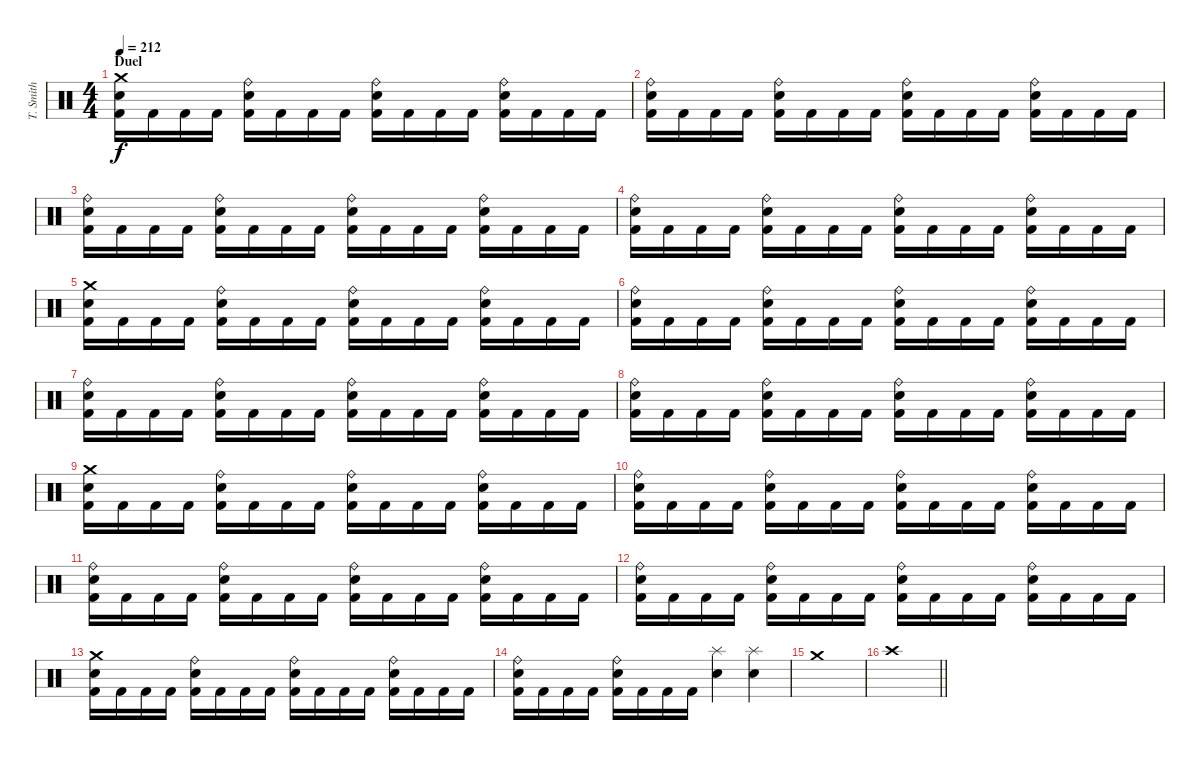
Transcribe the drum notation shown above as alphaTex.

\track ("T. Smith" "T. Smith") {instrument percussion}
\staff {score}
\articulation defaults
\ts (4 4)
\section ("" "Duel")
\tempo 212
\clef neutral
\ks c
("Crash medium (hit)" "Electric Snare (hit)" "Kick (hit) 2").16{dy f} "Kick (hit) 2".16 "Kick (hit) 2".16 "Kick (hit) 2".16 ("Ride (bell)" "Electric Snare (hit)" "Kick (hit) 2").16 "Kick (hit) 2".16 "Kick (hit) 2".16 "Kick (hit) 2".16 ("Ride (bell)" "Electric Snare (hit)" "Kick (hit) 2").16 "Kick (hit) 2".16 "Kick (hit) 2".16 "Kick (hit) 2".16 ("Ride (bell)" "Electric Snare (hit)" "Kick (hit) 2").16 "Kick (hit) 2".16 "Kick (hit) 2".16 "Kick (hit) 2".16 |
("Ride (bell)" "Electric Snare (hit)" "Kick (hit) 2").16 "Kick (hit) 2".16 "Kick (hit) 2".16 "Kick (hit) 2".16 ("Ride (bell)" "Electric Snare (hit)" "Kick (hit) 2").16 "Kick (hit) 2".16 "Kick (hit) 2".16 "Kick (hit) 2".16 ("Ride (bell)" "Electric Snare (hit)" "Kick (hit) 2").16 "Kick (hit) 2".16 "Kick (hit) 2".16 "Kick (hit) 2".16 ("Ride (bell)" "Electric Snare (hit)" "Kick (hit) 2").16 "Kick (hit) 2".16 "Kick (hit) 2".16 "Kick (hit) 2".16 |
("Ride (bell)" "Electric Snare (hit)" "Kick (hit) 2").16 "Kick (hit) 2".16 "Kick (hit) 2".16 "Kick (hit) 2".16 ("Ride (bell)" "Electric Snare (hit)" "Kick (hit) 2").16 "Kick (hit) 2".16 "Kick (hit) 2".16 "Kick (hit) 2".16 ("Ride (bell)" "Electric Snare (hit)" "Kick (hit) 2").16 "Kick (hit) 2".16 "Kick (hit) 2".16 "Kick (hit) 2".16 ("Ride (bell)" "Electric Snare (hit)" "Kick (hit) 2").16 "Kick (hit) 2".16 "Kick (hit) 2".16 "Kick (hit) 2".16 |
("Ride (bell)" "Electric Snare (hit)" "Kick (hit) 2").16 "Kick (hit) 2".16 "Kick (hit) 2".16 "Kick (hit) 2".16 ("Ride (bell)" "Electric Snare (hit)" "Kick (hit) 2").16 "Kick (hit) 2".16 "Kick (hit) 2".16 "Kick (hit) 2".16 ("Ride (bell)" "Electric Snare (hit)" "Kick (hit) 2").16 "Kick (hit) 2".16 "Kick (hit) 2".16 "Kick (hit) 2".16 ("Ride (bell)" "Electric Snare (hit)" "Kick (hit) 2").16 "Kick (hit) 2".16 "Kick (hit) 2".16 "Kick (hit) 2".16 |
("Crash medium (hit)" "Electric Snare (hit)" "Kick (hit) 2").16 "Kick (hit) 2".16 "Kick (hit) 2".16 "Kick (hit) 2".16 ("Ride (bell)" "Electric Snare (hit)" "Kick (hit) 2").16 "Kick (hit) 2".16 "Kick (hit) 2".16 "Kick (hit) 2".16 ("Ride (bell)" "Electric Snare (hit)" "Kick (hit) 2").16 "Kick (hit) 2".16 "Kick (hit) 2".16 "Kick (hit) 2".16 ("Ride (bell)" "Electric Snare (hit)" "Kick (hit) 2").16 "Kick (hit) 2".16 "Kick (hit) 2".16 "Kick (hit) 2".16 |
("Ride (bell)" "Electric Snare (hit)" "Kick (hit) 2").16 "Kick (hit) 2".16 "Kick (hit) 2".16 "Kick (hit) 2".16 ("Ride (bell)" "Electric Snare (hit)" "Kick (hit) 2").16 "Kick (hit) 2".16 "Kick (hit) 2".16 "Kick (hit) 2".16 ("Ride (bell)" "Electric Snare (hit)" "Kick (hit) 2").16 "Kick (hit) 2".16 "Kick (hit) 2".16 "Kick (hit) 2".16 ("Ride (bell)" "Electric Snare (hit)" "Kick (hit) 2").16 "Kick (hit) 2".16 "Kick (hit) 2".16 "Kick (hit) 2".16 |
("Ride (bell)" "Electric Snare (hit)" "Kick (hit) 2").16 "Kick (hit) 2".16 "Kick (hit) 2".16 "Kick (hit) 2".16 ("Ride (bell)" "Electric Snare (hit)" "Kick (hit) 2").16 "Kick (hit) 2".16 "Kick (hit) 2".16 "Kick (hit) 2".16 ("Ride (bell)" "Electric Snare (hit)" "Kick (hit) 2").16 "Kick (hit) 2".16 "Kick (hit) 2".16 "Kick (hit) 2".16 ("Ride (bell)" "Electric Snare (hit)" "Kick (hit) 2").16 "Kick (hit) 2".16 "Kick (hit) 2".16 "Kick (hit) 2".16 |
("Ride (bell)" "Electric Snare (hit)" "Kick (hit) 2").16 "Kick (hit) 2".16 "Kick (hit) 2".16 "Kick (hit) 2".16 ("Ride (bell)" "Electric Snare (hit)" "Kick (hit) 2").16 "Kick (hit) 2".16 "Kick (hit) 2".16 "Kick (hit) 2".16 ("Ride (bell)" "Electric Snare (hit)" "Kick (hit) 2").16 "Kick (hit) 2".16 "Kick (hit) 2".16 "Kick (hit) 2".16 ("Ride (bell)" "Electric Snare (hit)" "Kick (hit) 2").16 "Kick (hit) 2".16 "Kick (hit) 2".16 "Kick (hit) 2".16 |
("Crash medium (hit)" "Electric Snare (hit)" "Kick (hit) 2").16 "Kick (hit) 2".16 "Kick (hit) 2".16 "Kick (hit) 2".16 ("Ride (bell)" "Electric Snare (hit)" "Kick (hit) 2").16 "Kick (hit) 2".16 "Kick (hit) 2".16 "Kick (hit) 2".16 ("Ride (bell)" "Electric Snare (hit)" "Kick (hit) 2").16 "Kick (hit) 2".16 "Kick (hit) 2".16 "Kick (hit) 2".16 ("Ride (bell)" "Electric Snare (hit)" "Kick (hit) 2").16 "Kick (hit) 2".16 "Kick (hit) 2".16 "Kick (hit) 2".16 |
("Ride (bell)" "Electric Snare (hit)" "Kick (hit) 2").16 "Kick (hit) 2".16 "Kick (hit) 2".16 "Kick (hit) 2".16 ("Ride (bell)" "Electric Snare (hit)" "Kick (hit) 2").16 "Kick (hit) 2".16 "Kick (hit) 2".16 "Kick (hit) 2".16 ("Ride (bell)" "Electric Snare (hit)" "Kick (hit) 2").16 "Kick (hit) 2".16 "Kick (hit) 2".16 "Kick (hit) 2".16 ("Ride (bell)" "Electric Snare (hit)" "Kick (hit) 2").16 "Kick (hit) 2".16 "Kick (hit) 2".16 "Kick (hit) 2".16 |
("Ride (bell)" "Electric Snare (hit)" "Kick (hit) 2").16 "Kick (hit) 2".16 "Kick (hit) 2".16 "Kick (hit) 2".16 ("Ride (bell)" "Electric Snare (hit)" "Kick (hit) 2").16 "Kick (hit) 2".16 "Kick (hit) 2".16 "Kick (hit) 2".16 ("Ride (bell)" "Electric Snare (hit)" "Kick (hit) 2").16 "Kick (hit) 2".16 "Kick (hit) 2".16 "Kick (hit) 2".16 ("Ride (bell)" "Electric Snare (hit)" "Kick (hit) 2").16 "Kick (hit) 2".16 "Kick (hit) 2".16 "Kick (hit) 2".16 |
("Ride (bell)" "Electric Snare (hit)" "Kick (hit) 2").16 "Kick (hit) 2".16 "Kick (hit) 2".16 "Kick (hit) 2".16 ("Ride (bell)" "Electric Snare (hit)" "Kick (hit) 2").16 "Kick (hit) 2".16 "Kick (hit) 2".16 "Kick (hit) 2".16 ("Ride (bell)" "Electric Snare (hit)" "Kick (hit) 2").16 "Kick (hit) 2".16 "Kick (hit) 2".16 "Kick (hit) 2".16 ("Ride (bell)" "Electric Snare (hit)" "Kick (hit) 2").16 "Kick (hit) 2".16 "Kick (hit) 2".16 "Kick (hit) 2".16 |
("Crash medium (hit)" "Electric Snare (hit)" "Kick (hit) 2").16 "Kick (hit) 2".16 "Kick (hit) 2".16 "Kick (hit) 2".16 ("Ride (bell)" "Electric Snare (hit)" "Kick (hit) 2").16 "Kick (hit) 2".16 "Kick (hit) 2".16 "Kick (hit) 2".16 ("Ride (bell)" "Electric Snare (hit)" "Kick (hit) 2").16 "Kick (hit) 2".16 "Kick (hit) 2".16 "Kick (hit) 2".16 ("Ride (bell)" "Electric Snare (hit)" "Kick (hit) 2").16 "Kick (hit) 2".16 "Kick (hit) 2".16 "Kick (hit) 2".16 |
("Ride (bell)" "Electric Snare (hit)" "Kick (hit) 2").16 "Kick (hit) 2".16 "Kick (hit) 2".16 "Kick (hit) 2".16 ("Ride (bell)" "Electric Snare (hit)" "Kick (hit) 2").16 "Kick (hit) 2".16 "Kick (hit) 2".16 "Kick (hit) 2".16 ("Splash (hit)" "Electric Snare (hit)").4 ("Splash (hit)" "Electric Snare (hit)").4 |
"Crash medium (hit)".1 |
\barLineRight lightlight "Crash high (hit)".1
